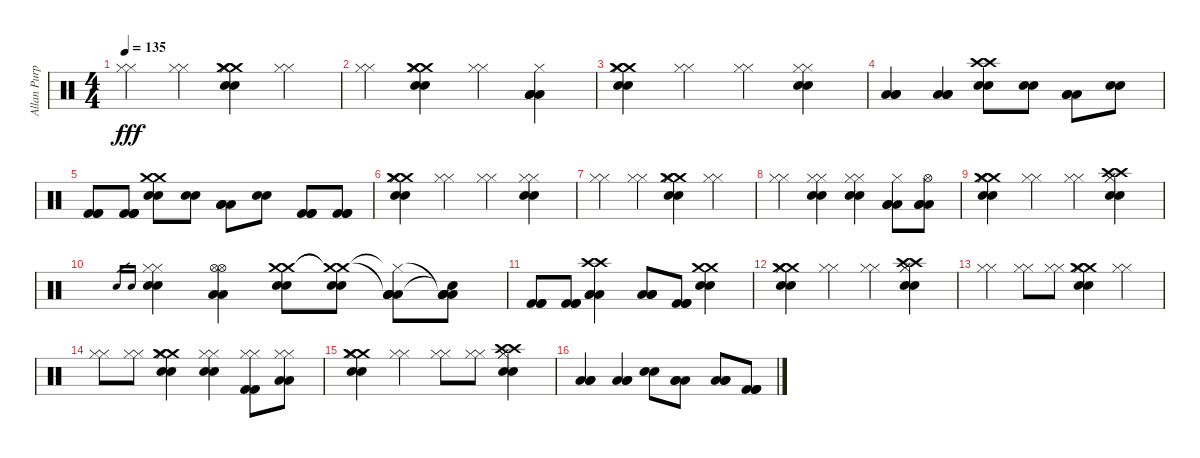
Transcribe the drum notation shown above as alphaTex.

\track ("Allan Purple" "Allan Purp") {instrument percussion}
\staff {score}
\articulation defaults
\ts (4 4)
\tempo 135
\clef neutral
\ks c
("Hi-Hat (closed)" "Hi-Hat (closed)").4{dy fff} ("Hi-Hat (closed)" "Hi-Hat (closed)").4 ("Crash medium (hit)" "Crash medium (hit)" "Hi-Hat (closed)" "Hi-Hat (closed)" "Electric Snare (hit)" "Electric Snare (hit)").4 ("Hi-Hat (closed)" "Hi-Hat (closed)").4 |
("Hi-Hat (closed)" "Hi-Hat (closed)").4 ("Crash medium (hit)" "Crash medium (hit)" "Hi-Hat (closed)" "Hi-Hat (closed)" "Electric Snare (hit)" "Electric Snare (hit)").4 ("Hi-Hat (closed)" "Hi-Hat (closed)").4 ("Hi-Hat (closed)" "Low Tom (hit)" "Low Tom (hit)" "Low Tom (hit)").4 |
("Crash medium (hit)" "Crash medium (hit)" "Hi-Hat (closed)" "Hi-Hat (closed)" "Electric Snare (hit)" "Electric Snare (hit)").4 ("Hi-Hat (closed)" "Hi-Hat (closed)").4 ("Hi-Hat (closed)" "Hi-Hat (closed)").4 ("Hi-Hat (closed)" "Hi-Hat (closed)" "Electric Snare (hit)" "Electric Snare (hit)").4 |
("Low Tom (hit)" "Low Tom (hit)" "Low Tom (hit)").4 ("Low Tom (hit)" "Low Tom (hit)" "Low Tom (hit)").4 ("Crash high (hit)" "Crash high (hit)" "Electric Snare (hit)" "Electric Snare (hit)").8 ("Electric Snare (hit)" "Electric Snare (hit)").8 ("Low Tom (hit)" "Low Tom (hit)" "Low Tom (hit)").8 ("Electric Snare (hit)" "Electric Snare (hit)").8 |
("Kick (hit) 2" "Kick (hit) 2" "Kick (hit) 2").8 ("Kick (hit) 2" "Kick (hit) 2" "Kick (hit) 2").8 ("Crash medium (hit)" "Crash medium (hit)" "Electric Snare (hit)" "Electric Snare (hit)").8 ("Electric Snare (hit)" "Electric Snare (hit)").8 ("Low Tom (hit)" "Low Tom (hit)" "Low Tom (hit)").8 ("Electric Snare (hit)" "Electric Snare (hit)").8 ("Kick (hit) 2" "Kick (hit) 2" "Kick (hit) 2").8 ("Kick (hit) 2" "Kick (hit) 2" "Kick (hit) 2").8 |
("Crash medium (hit)" "Crash medium (hit)" "Hi-Hat (closed)" "Hi-Hat (closed)" "Electric Snare (hit)" "Electric Snare (hit)").4 ("Hi-Hat (closed)" "Hi-Hat (closed)").4 ("Hi-Hat (closed)" "Hi-Hat (closed)").4 ("Hi-Hat (closed)" "Hi-Hat (closed)" "Electric Snare (hit)" "Electric Snare (hit)").4 |
("Hi-Hat (closed)" "Hi-Hat (closed)").4 ("Hi-Hat (closed)" "Hi-Hat (closed)").4 ("Crash medium (hit)" "Crash medium (hit)" "Hi-Hat (closed)" "Hi-Hat (closed)" "Electric Snare (hit)" "Electric Snare (hit)").4 ("Hi-Hat (closed)" "Hi-Hat (closed)").4 |
("Hi-Hat (closed)" "Hi-Hat (closed)").4 ("Hi-Hat (closed)" "Hi-Hat (closed)" "Electric Snare (hit)" "Electric Snare (hit)").4 ("Hi-Hat (closed)" "Hi-Hat (closed)" "Electric Snare (hit)" "Electric Snare (hit)").4 ("Hi-Hat (closed)" "Low Tom (hit)" "Low Tom (hit)" "Low Tom (hit)").8 ("Hi-Hat (open)" "Low Tom (hit)" "Low Tom (hit)" "Low Tom (hit)").8 |
("Crash medium (hit)" "Crash medium (hit)" "Hi-Hat (closed)" "Hi-Hat (closed)" "Electric Snare (hit)" "Electric Snare (hit)").4 ("Hi-Hat (closed)" "Hi-Hat (closed)").4 ("Hi-Hat (closed)" "Hi-Hat (closed)").4 ("Crash high (hit)" "Crash high (hit)" "Hi-Hat (closed)" "Hi-Hat (closed)" "Electric Snare (hit)" "Electric Snare (hit)").4 |
"Electric Snare (hit)".16{gr} "Electric Snare (hit)".16{gr} ("Hi-Hat (closed)" "Hi-Hat (closed)" "Electric Snare (hit)" "Electric Snare (hit)").4 ("Hi-Hat (open)" "Hi-Hat (open)" "Low Tom (hit)" "Low Tom (hit)").4 ("Crash medium (hit)" "Crash medium (hit)" "Electric Snare (hit)" "Electric Snare (hit)").8 ("Crash medium (hit)"{t} "Crash medium (hit)"{t} "Electric Snare (hit)" "Electric Snare (hit)").8 ("Low Tom (hit)"{t} "Hi-Hat (closed)"{t} "Low Tom (hit)" "Low Tom (hit)" "Low Tom (hit)").8 ("Electric Snare (hit)"{t} "Low Tom (hit)"{t} "Low Tom (hit)" "Low Tom (hit)" "Low Tom (hit)").8 |
("Kick (hit) 2" "Kick (hit) 2" "Kick (hit) 2").8 ("Kick (hit) 2" "Kick (hit) 2" "Kick (hit) 2").8 ("Crash high (hit)" "Crash high (hit)" "Low Tom (hit)" "Low Tom (hit)" "Low Tom (hit)").4 ("Low Tom (hit)" "Low Tom (hit)" "Low Tom (hit)").8 ("Kick (hit) 2" "Kick (hit) 2" "Kick (hit) 2").8 ("Crash medium (hit)" "Crash medium (hit)" "Electric Snare (hit)" "Electric Snare (hit)").4 |
("Crash medium (hit)" "Crash medium (hit)" "Hi-Hat (closed)" "Hi-Hat (closed)" "Electric Snare (hit)" "Electric Snare (hit)").4 ("Hi-Hat (closed)" "Hi-Hat (closed)").4 ("Hi-Hat (closed)" "Hi-Hat (closed)").4 ("Crash high (hit)" "Crash high (hit)" "Hi-Hat (closed)" "Hi-Hat (closed)" "Electric Snare (hit)" "Electric Snare (hit)").4 |
("Hi-Hat (closed)" "Hi-Hat (closed)").4 ("Hi-Hat (closed)" "Hi-Hat (closed)").8 ("Hi-Hat (closed)" "Hi-Hat (closed)").8 ("Crash medium (hit)" "Crash medium (hit)" "Hi-Hat (closed)" "Hi-Hat (closed)" "Electric Snare (hit)" "Electric Snare (hit)").4 ("Hi-Hat (closed)" "Hi-Hat (closed)").4 |
("Hi-Hat (closed)" "Hi-Hat (closed)").8 ("Hi-Hat (closed)" "Hi-Hat (closed)").8 ("Crash medium (hit)" "Crash medium (hit)" "Hi-Hat (closed)" "Hi-Hat (closed)" "Electric Snare (hit)" "Electric Snare (hit)").4 ("Hi-Hat (closed)" "Hi-Hat (closed)" "Electric Snare (hit)" "Electric Snare (hit)").4 ("Hi-Hat (closed)" "Hi-Hat (closed)" "Kick (hit) 2" "Kick (hit) 2").8 ("Hi-Hat (closed)" "Hi-Hat (closed)" "Low Tom (hit)" "Low Tom (hit)").8 |
("Crash medium (hit)" "Crash medium (hit)" "Hi-Hat (closed)" "Hi-Hat (closed)" "Electric Snare (hit)" "Electric Snare (hit)").4 ("Hi-Hat (closed)" "Hi-Hat (closed)").4 ("Hi-Hat (closed)" "Hi-Hat (closed)").8 ("Hi-Hat (closed)" "Hi-Hat (closed)").8 ("Crash high (hit)" "Crash high (hit)" "Hi-Hat (closed)" "Hi-Hat (closed)" "Electric Snare (hit)" "Electric Snare (hit)").4 |
("Low Floor Tom (hit)" "Low Floor Tom (hit)" "Low Floor Tom (hit)").4 ("Low Tom (hit)" "Low Tom (hit)" "Low Tom (hit)").4 ("Electric Snare (hit)" "Electric Snare (hit)").8 ("Low Tom (hit)" "Low Tom (hit)" "Low Tom (hit)").8 ("Low Tom (hit)" "Low Tom (hit)" "Low Tom (hit)").8 ("Kick (hit) 2" "Kick (hit) 2" "Kick (hit) 2").8
